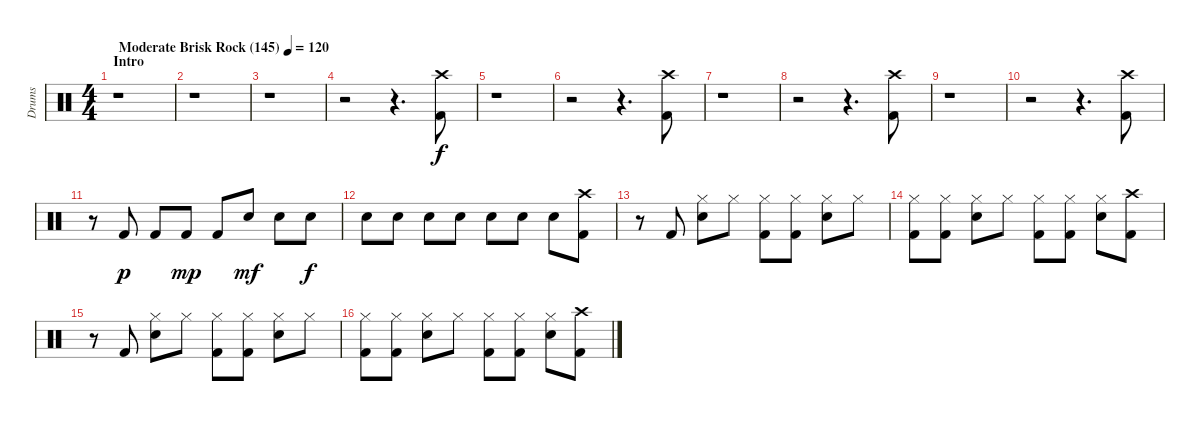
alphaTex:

\track ("Drums" "Drums") {instrument percussion}
\staff {score}
\articulation defaults
\ts (4 4)
\section ("" "Intro")
\tempo (120 "Moderate Brisk Rock (145)")
\clef neutral
\ks c
r.1{dy f} |
r.1 |
r.1 |
r.2 r.4{d} ("Crash high (hit)" "Kick (hit) 2").8 |
r.1 |
r.2 r.4{d} ("Crash high (hit)" "Kick (hit) 2").8 |
r.1 |
r.2 r.4{d} ("Crash high (hit)" "Kick (hit) 2").8 |
r.1 |
r.2 r.4{d} ("Crash high (hit)" "Kick (hit) 2").8 |
r.8 "Kick (hit) 2".8{dy p} "Kick (hit) 2".8 "Kick (hit) 2".8{dy mp} "Kick (hit) 2".8 "Snare (hit) 2".8{dy mf} "Snare (hit) 2".8 "Snare (hit) 2".8{dy f} |
"Snare (hit) 2".8 "Snare (hit) 2".8 "Snare (hit) 2".8 "Snare (hit) 2".8 "Snare (hit) 2".8 "Snare (hit) 2".8 "Snare (hit) 2".8 ("Crash high (hit)" "Kick (hit) 2").8 |
r.8 "Kick (hit) 2".8 ("Hi-Hat (closed)" "Snare (hit) 2").8 "Hi-Hat (closed)".8 ("Hi-Hat (closed)" "Kick (hit) 2").8 ("Hi-Hat (closed)" "Kick (hit) 2").8 ("Hi-Hat (closed)" "Snare (hit) 2").8 "Hi-Hat (closed)".8 |
("Hi-Hat (closed)" "Kick (hit) 2").8 ("Hi-Hat (closed)" "Kick (hit) 2").8 ("Hi-Hat (closed)" "Snare (hit) 2").8 "Hi-Hat (closed)".8 ("Hi-Hat (closed)" "Kick (hit) 2").8 ("Hi-Hat (closed)" "Kick (hit) 2").8 ("Hi-Hat (closed)" "Snare (hit) 2").8 ("Crash high (hit)" "Kick (hit) 2").8 |
r.8 "Kick (hit) 2".8 ("Hi-Hat (closed)" "Snare (hit) 2").8 "Hi-Hat (closed)".8 ("Hi-Hat (closed)" "Kick (hit) 2").8 ("Hi-Hat (closed)" "Kick (hit) 2").8 ("Hi-Hat (closed)" "Snare (hit) 2").8 "Hi-Hat (closed)".8 |
("Hi-Hat (closed)" "Kick (hit) 2").8 ("Hi-Hat (closed)" "Kick (hit) 2").8 ("Hi-Hat (closed)" "Snare (hit) 2").8 "Hi-Hat (closed)".8 ("Hi-Hat (closed)" "Kick (hit) 2").8 ("Hi-Hat (closed)" "Kick (hit) 2").8 ("Hi-Hat (closed)" "Snare (hit) 2").8 ("Crash high (hit)" "Kick (hit) 2").8
